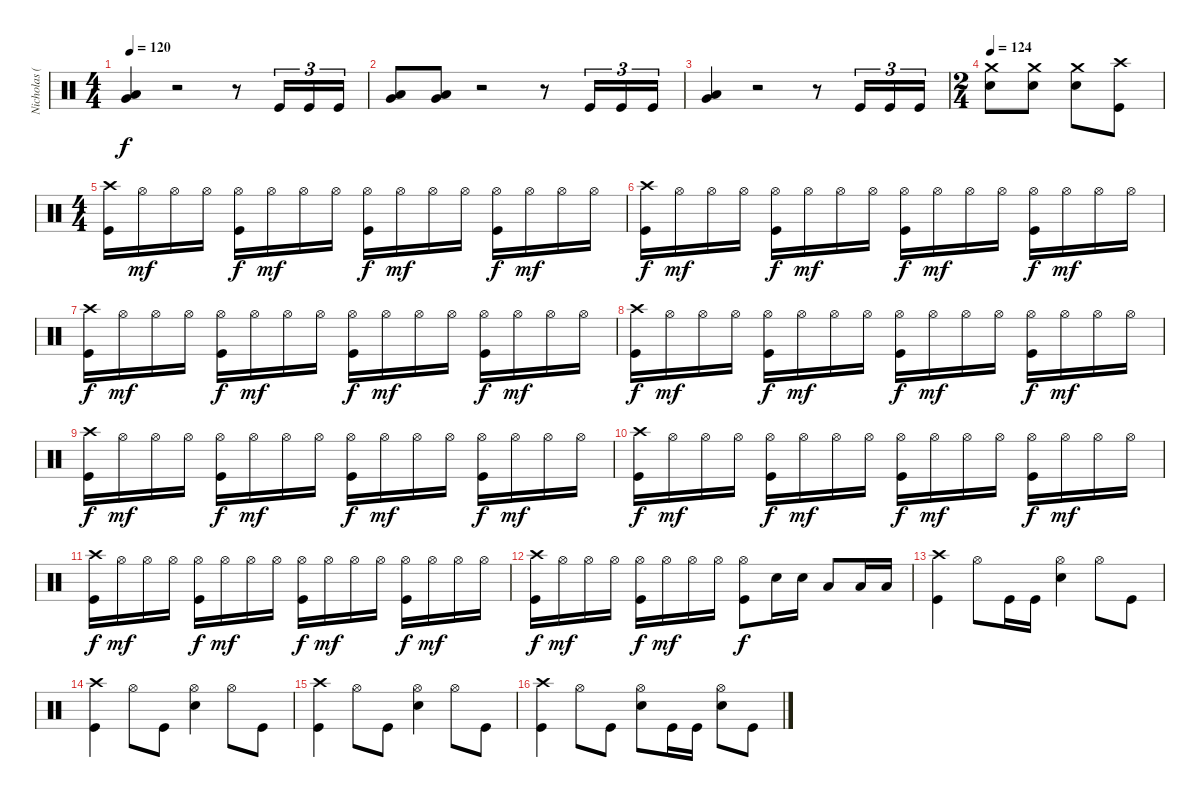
\track ("Nicholas (Drums)" "Nicholas (") {instrument percussion}
\staff {score}
\articulation defaults
\ts (4 4)
\tempo 120
\clef neutral
\ks c
("Low Tom (hit)" "Very Low Tom (hit)").4{bu 60 dy f} r.2 r.8 "Kick (hit)".16{tu (3 2)} "Kick (hit)".16{tu (3 2)} "Kick (hit)".16{tu (3 2)} |
("Low Tom (hit)" "Very Low Tom (hit)").8{bu 60} ("Low Tom (hit)" "Very Low Tom (hit)").8{bu 60} r.2 r.8 "Kick (hit)".16{tu (3 2)} "Kick (hit)".16{tu (3 2)} "Kick (hit)".16{tu (3 2)} |
("Low Tom (hit)" "Very Low Tom (hit)").4{bu 60} r.2 r.8 "Kick (hit)".16{tu (3 2)} "Kick (hit)".16{tu (3 2)} "Kick (hit)".16{tu (3 2)} |
\ts (2 4)
\tempo 124
("Crash medium (hit)" "Electric Snare (hit)").8 ("Crash medium (hit)" "Electric Snare (hit)").8 ("Crash medium (hit)" "Electric Snare (hit)").8 ("Crash high (hit)" "Kick (hit)").8 |
\ts (4 4)
("Crash high (hit)" "Kick (hit)").16 "Hi-Hat (open)".16{dy mf} "Hi-Hat (open)".16 "Hi-Hat (open)".16 ("Hi-Hat (open)" "Kick (hit)").16{dy f} "Hi-Hat (open)".16{dy mf} "Hi-Hat (open)".16 "Hi-Hat (open)".16 ("Hi-Hat (open)" "Kick (hit)").16{dy f} "Hi-Hat (open)".16{dy mf} "Hi-Hat (open)".16 "Hi-Hat (open)".16 ("Hi-Hat (open)" "Kick (hit)").16{dy f} "Hi-Hat (open)".16{dy mf} "Hi-Hat (open)".16 "Hi-Hat (open)".16 |
("Crash high (hit)" "Kick (hit)").16{dy f} "Hi-Hat (open)".16{dy mf} "Hi-Hat (open)".16 "Hi-Hat (open)".16 ("Hi-Hat (open)" "Kick (hit)").16{dy f} "Hi-Hat (open)".16{dy mf} "Hi-Hat (open)".16 "Hi-Hat (open)".16 ("Hi-Hat (open)" "Kick (hit)").16{dy f} "Hi-Hat (open)".16{dy mf} "Hi-Hat (open)".16 "Hi-Hat (open)".16 ("Hi-Hat (open)" "Kick (hit)").16{dy f} "Hi-Hat (open)".16{dy mf} "Hi-Hat (open)".16 "Hi-Hat (open)".16 |
("Crash high (hit)" "Kick (hit)").16{dy f} "Hi-Hat (open)".16{dy mf} "Hi-Hat (open)".16 "Hi-Hat (open)".16 ("Hi-Hat (open)" "Kick (hit)").16{dy f} "Hi-Hat (open)".16{dy mf} "Hi-Hat (open)".16 "Hi-Hat (open)".16 ("Hi-Hat (open)" "Kick (hit)").16{dy f} "Hi-Hat (open)".16{dy mf} "Hi-Hat (open)".16 "Hi-Hat (open)".16 ("Hi-Hat (open)" "Kick (hit)").16{dy f} "Hi-Hat (open)".16{dy mf} "Hi-Hat (open)".16 "Hi-Hat (open)".16 |
("Crash high (hit)" "Kick (hit)").16{dy f} "Hi-Hat (open)".16{dy mf} "Hi-Hat (open)".16 "Hi-Hat (open)".16 ("Hi-Hat (open)" "Kick (hit)").16{dy f} "Hi-Hat (open)".16{dy mf} "Hi-Hat (open)".16 "Hi-Hat (open)".16 ("Hi-Hat (open)" "Kick (hit)").16{dy f} "Hi-Hat (open)".16{dy mf} "Hi-Hat (open)".16 "Hi-Hat (open)".16 ("Hi-Hat (open)" "Kick (hit)").16{dy f} "Hi-Hat (open)".16{dy mf} "Hi-Hat (open)".16 "Hi-Hat (open)".16 |
("Crash high (hit)" "Kick (hit)").16{dy f} "Hi-Hat (open)".16{dy mf} "Hi-Hat (open)".16 "Hi-Hat (open)".16 ("Hi-Hat (open)" "Kick (hit)").16{dy f} "Hi-Hat (open)".16{dy mf} "Hi-Hat (open)".16 "Hi-Hat (open)".16 ("Hi-Hat (open)" "Kick (hit)").16{dy f} "Hi-Hat (open)".16{dy mf} "Hi-Hat (open)".16 "Hi-Hat (open)".16 ("Hi-Hat (open)" "Kick (hit)").16{dy f} "Hi-Hat (open)".16{dy mf} "Hi-Hat (open)".16 "Hi-Hat (open)".16 |
("Crash high (hit)" "Kick (hit)").16{dy f} "Hi-Hat (open)".16{dy mf} "Hi-Hat (open)".16 "Hi-Hat (open)".16 ("Hi-Hat (open)" "Kick (hit)").16{dy f} "Hi-Hat (open)".16{dy mf} "Hi-Hat (open)".16 "Hi-Hat (open)".16 ("Hi-Hat (open)" "Kick (hit)").16{dy f} "Hi-Hat (open)".16{dy mf} "Hi-Hat (open)".16 "Hi-Hat (open)".16 ("Hi-Hat (open)" "Kick (hit)").16{dy f} "Hi-Hat (open)".16{dy mf} "Hi-Hat (open)".16 "Hi-Hat (open)".16 |
("Crash high (hit)" "Kick (hit)").16{dy f} "Hi-Hat (open)".16{dy mf} "Hi-Hat (open)".16 "Hi-Hat (open)".16 ("Hi-Hat (open)" "Kick (hit)").16{dy f} "Hi-Hat (open)".16{dy mf} "Hi-Hat (open)".16 "Hi-Hat (open)".16 ("Hi-Hat (open)" "Kick (hit)").16{dy f} "Hi-Hat (open)".16{dy mf} "Hi-Hat (open)".16 "Hi-Hat (open)".16 ("Hi-Hat (open)" "Kick (hit)").16{dy f} "Hi-Hat (open)".16{dy mf} "Hi-Hat (open)".16 "Hi-Hat (open)".16 |
("Crash high (hit)" "Kick (hit)").16{dy f} "Hi-Hat (open)".16{dy mf} "Hi-Hat (open)".16 "Hi-Hat (open)".16 ("Hi-Hat (open)" "Kick (hit)").16{dy f} "Hi-Hat (open)".16{dy mf} "Hi-Hat (open)".16 "Hi-Hat (open)".16 ("Hi-Hat (open)" "Kick (hit)").8{dy f} "Electric Snare (hit)".16 "Electric Snare (hit)".16 "Low Tom (hit)".8 "Low Tom (hit)".16 "Low Tom (hit)".16 |
("Crash high (hit)" "Kick (hit)").4 "Hi-Hat (open)".8 "Kick (hit)".16 "Kick (hit)".16 ("Hi-Hat (open)" "Electric Snare (hit)").4 "Hi-Hat (open)".8 "Kick (hit)".8 |
("Crash high (hit)" "Kick (hit)").4 "Hi-Hat (open)".8 "Kick (hit)".8 ("Hi-Hat (open)" "Electric Snare (hit)").4 "Hi-Hat (open)".8 "Kick (hit)".8 |
("Crash high (hit)" "Kick (hit)").4 "Hi-Hat (open)".8 "Kick (hit)".8 ("Hi-Hat (open)" "Electric Snare (hit)").4 "Hi-Hat (open)".8 "Kick (hit)".8 |
("Crash high (hit)" "Kick (hit)").4 "Hi-Hat (open)".8 "Kick (hit)".8 ("Hi-Hat (open)" "Electric Snare (hit)").8 "Kick (hit)".16 "Kick (hit)".16 ("Hi-Hat (open)" "Electric Snare (hit)").8 "Kick (hit)".8
